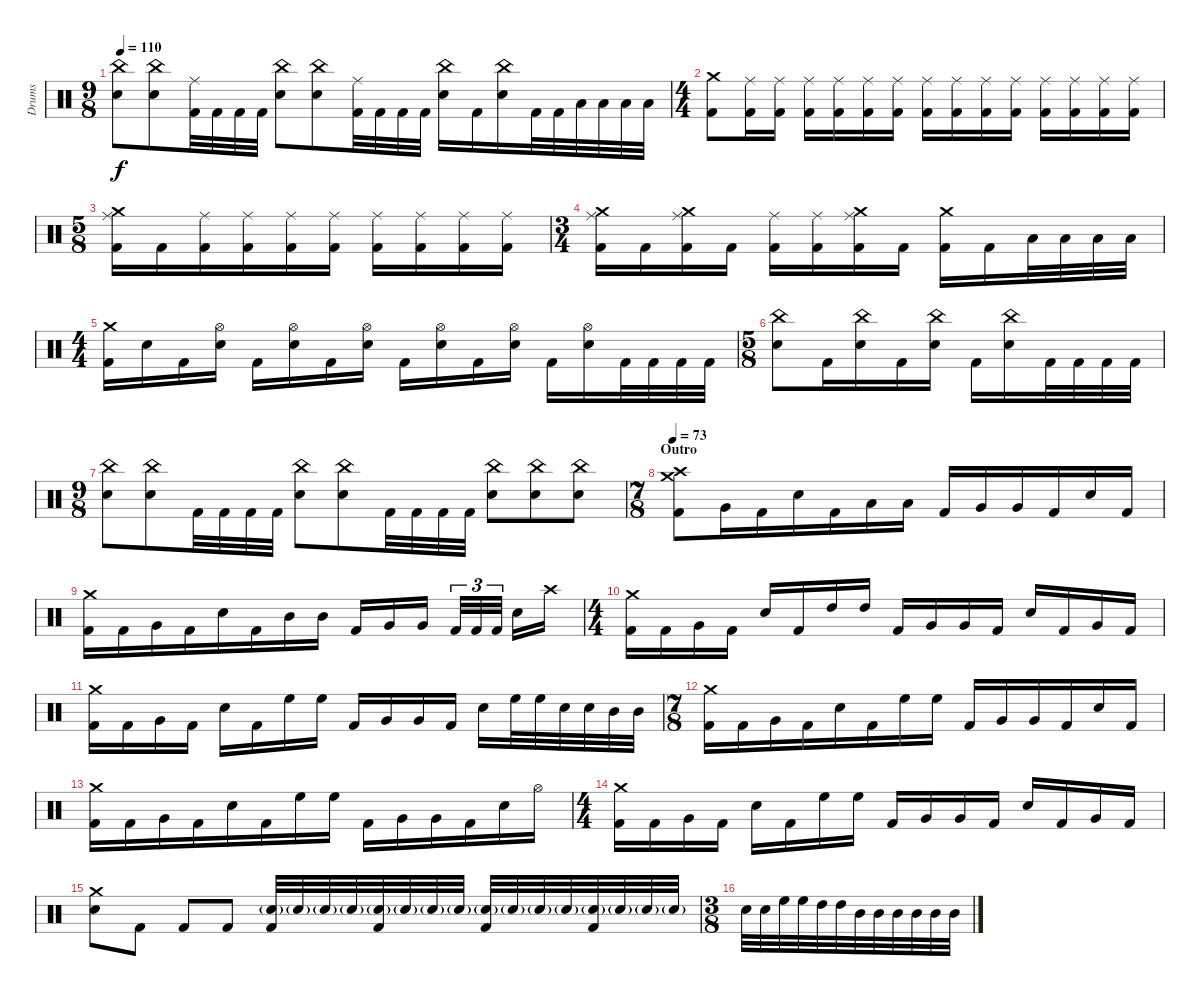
\track ("Drums" "Drums") {instrument percussion}
\staff {score}
\articulation defaults
\ts (9 8)
\tempo 110
\clef neutral
\ks c
("China (hit)" "Snare (hit) 2").8{dy f} ("China (hit)" "Snare (hit) 2").8 ("Ride (middle)" "Kick (hit) 2").32 "Kick (hit) 2".32 "Kick (hit) 2".32 "Kick (hit) 2".32 ("China (hit)" "Snare (hit) 2").8 ("China (hit)" "Snare (hit) 2").8 ("Ride (middle)" "Kick (hit) 2").32 "Kick (hit) 2".32 "Kick (hit) 2".32 "Kick (hit) 2".32 ("China (hit)" "Snare (hit) 2").16 "Kick (hit) 2".16 ("China (hit)" "Snare (hit) 2").16 "Kick (hit) 2".32 "Kick (hit) 2".32 "Low Tom (hit)".32 "Low Tom (hit)".32 "Low Tom (hit)".32 "Low Tom (hit)".32 |
\ts (4 4)
("Crash medium (hit)" "Kick (hit) 2").8 ("Ride (middle)" "Kick (hit) 2").16 ("Ride (middle)" "Kick (hit) 2").16 ("Ride (middle)" "Kick (hit) 2").16 ("Ride (middle)" "Kick (hit) 2").16 ("Ride (middle)" "Kick (hit) 2").16 ("Ride (middle)" "Kick (hit) 2").16 ("Ride (middle)" "Kick (hit) 2").16 ("Ride (middle)" "Kick (hit) 2").16 ("Ride (middle)" "Kick (hit) 2").16 ("Ride (middle)" "Kick (hit) 2").16 ("Ride (middle)" "Kick (hit) 2").16 ("Ride (middle)" "Kick (hit) 2").16 ("Ride (middle)" "Kick (hit) 2").16 ("Ride (middle)" "Kick (hit) 2").16 |
\ts (5 8)
("Crash medium (hit)" "Ride (middle)" "Kick (hit) 2").16 "Kick (hit) 2".16 ("Ride (middle)" "Kick (hit) 2").16 ("Ride (middle)" "Kick (hit) 2").16 ("Ride (middle)" "Kick (hit) 2").16 ("Ride (middle)" "Kick (hit) 2").16 ("Ride (middle)" "Kick (hit) 2").16 ("Ride (middle)" "Kick (hit) 2").16 ("Ride (middle)" "Kick (hit) 2").16 ("Ride (middle)" "Kick (hit) 2").16 |
\ts (3 4)
("Crash medium (hit)" "Ride (middle)" "Kick (hit) 2").16 "Kick (hit) 2".16 ("Crash medium (hit)" "Ride (middle)" "Kick (hit) 2").16 "Kick (hit) 2".16 ("Ride (middle)" "Kick (hit) 2").16 ("Ride (middle)" "Kick (hit) 2").16 ("Crash medium (hit)" "Ride (middle)" "Kick (hit) 2").16 "Kick (hit) 2".16 ("Crash medium (hit)" "Kick (hit) 2").16 "Kick (hit) 2".16 "Low Tom (hit)".32 "Low Tom (hit)".32 "Low Tom (hit)".32 "Low Tom (hit)".32 |
\ts (4 4)
("Crash medium (hit)" "Kick (hit) 2").16 "Snare (hit) 2".16 "Kick (hit) 2".16 ("Hi-Hat (open)" "Snare (hit) 2").16 "Kick (hit) 2".16 ("Hi-Hat (open)" "Snare (hit) 2").16 "Kick (hit) 2".16 ("Hi-Hat (open)" "Snare (hit) 2").16 "Kick (hit) 2".16 ("Hi-Hat (open)" "Snare (hit) 2").16 "Kick (hit) 2".16 ("Hi-Hat (open)" "Snare (hit) 2").16 "Kick (hit) 2".16 ("Hi-Hat (open)" "Snare (hit) 2").16 "Kick (hit) 2".32 "Kick (hit) 2".32 "Kick (hit) 2".32 "Kick (hit) 2".32 |
\ts (5 8)
("China (hit)" "Snare (hit) 2").8 "Kick (hit) 2".16 ("China (hit)" "Snare (hit) 2").16 "Kick (hit) 2".16 ("China (hit)" "Snare (hit) 2").16 "Kick (hit) 2".16 ("China (hit)" "Snare (hit) 2").16 "Kick (hit) 2".32 "Kick (hit) 2".32 "Kick (hit) 2".32 "Kick (hit) 2".32 |
\ts (9 8)
("China (hit)" "Snare (hit) 2").8 ("China (hit)" "Snare (hit) 2").8 "Kick (hit) 2".32 "Kick (hit) 2".32 "Kick (hit) 2".32 "Kick (hit) 2".32 ("China (hit)" "Snare (hit) 2").8 ("China (hit)" "Snare (hit) 2").8 "Kick (hit) 2".32 "Kick (hit) 2".32 "Kick (hit) 2".32 "Kick (hit) 2".32 ("China (hit)" "Snare (hit) 2").8 ("China (hit)" "Snare (hit) 2").8 ("China (hit)" "Snare (hit) 2").8 |
\ts (7 8)
\section ("" "Outro")
\tempo 73
("Crash medium (hit)" "Crash high (hit)" "Kick (hit) 2").8 "Very Low Tom (hit)".16 "Kick (hit) 2".16 "Snare (hit) 2".16 "Kick (hit) 2".16 "Low Tom (hit)".16 "Low Tom (hit)".16 "Kick (hit) 2".16 "Very Low Tom (hit)".16 "Very Low Tom (hit)".16 "Kick (hit) 2".16 "Snare (hit) 2".16 "Kick (hit) 2".16 |
("Crash medium (hit)" "Kick (hit) 2").16 "Kick (hit) 2".16 "Very Low Tom (hit)".16 "Kick (hit) 2".16 "Snare (hit) 2".16 "Kick (hit) 2".16 "Mid Tom (hit)".16 "Mid Tom (hit)".16 "Kick (hit) 2".16 "Very Low Tom (hit)".16 "Very Low Tom (hit)".16 "Kick (hit) 2".32{tu (3 2)} "Kick (hit) 2".32{tu (3 2)} "Kick (hit) 2".32{tu (3 2)} "Snare (hit) 2".16 "Crash high (hit)".16 |
\ts (4 4)
("Crash medium (hit)" "Kick (hit) 2").16 "Kick (hit) 2".16 "Very Low Tom (hit)".16 "Kick (hit) 2".16 "Snare (hit) 2".16 "Kick (hit) 2".16 "High Tom (hit)".16 "High Tom (hit)".16 "Kick (hit) 2".16 "Very Low Tom (hit)".16 "Very Low Tom (hit)".16 "Kick (hit) 2".16 "Snare (hit) 2".16 "Kick (hit) 2".16 "Very Low Tom (hit)".16 "Kick (hit) 2".16 |
("Crash medium (hit)" "Kick (hit) 2").16 "Kick (hit) 2".16 "Very Low Tom (hit)".16 "Kick (hit) 2".16 "Snare (hit) 2".16 "Kick (hit) 2".16 "High Floor Tom (hit)".16 "High Floor Tom (hit)".16 "Kick (hit) 2".16 "Very Low Tom (hit)".16 "Very Low Tom (hit)".16 "Kick (hit) 2".16 "Snare (hit) 2".16 "High Floor Tom (hit)".32 "High Floor Tom (hit)".32 "Snare (hit) 2".32 "Snare (hit) 2".32 "Mid Tom (hit)".32 "Mid Tom (hit)".32 |
\ts (7 8)
("Crash medium (hit)" "Kick (hit) 2").16 "Kick (hit) 2".16 "Very Low Tom (hit)".16 "Kick (hit) 2".16 "Snare (hit) 2".16 "Kick (hit) 2".16 "High Floor Tom (hit)".16 "High Floor Tom (hit)".16 "Kick (hit) 2".16 "Very Low Tom (hit)".16 "Very Low Tom (hit)".16 "Kick (hit) 2".16 "Snare (hit) 2".16 "Kick (hit) 2".16 |
("Crash medium (hit)" "Kick (hit) 2").16 "Kick (hit) 2".16 "Very Low Tom (hit)".16 "Kick (hit) 2".16 "Snare (hit) 2".16 "Kick (hit) 2".16 "High Floor Tom (hit)".16 "High Floor Tom (hit)".16 "Kick (hit) 2".16 "Very Low Tom (hit)".16 "Very Low Tom (hit)".16 "Kick (hit) 2".16 "Snare (hit) 2".16 "Hi-Hat (open)".16 |
\ts (4 4)
("Crash medium (hit)" "Kick (hit) 2").16 "Kick (hit) 2".16 "Very Low Tom (hit)".16 "Kick (hit) 2".16 "Snare (hit) 2".16 "Kick (hit) 2".16 "High Floor Tom (hit)".16 "High Floor Tom (hit)".16 "Kick (hit) 2".16 "Very Low Tom (hit)".16 "Very Low Tom (hit)".16 "Kick (hit) 2".16 "Snare (hit) 2".16 "Kick (hit) 2".16 "Very Low Tom (hit)".16 "Kick (hit) 2".16 |
("Crash medium (hit)" "Snare (hit) 2").8 "Kick (hit) 2".8 "Kick (hit) 2".8 "Kick (hit) 2".8 ("Snare (hit) 2"{g} "Kick (hit) 2").32 "Snare (hit) 2"{g}.32 "Snare (hit) 2"{g}.32 "Snare (hit) 2"{g}.32 ("Snare (hit) 2"{g} "Kick (hit) 2").32 "Snare (hit) 2"{g}.32 "Snare (hit) 2"{g}.32 "Snare (hit) 2"{g}.32 ("Snare (hit) 2"{g} "Kick (hit) 2").32 "Snare (hit) 2"{g}.32 "Snare (hit) 2"{g}.32 "Snare (hit) 2"{g}.32 ("Snare (hit) 2"{g} "Kick (hit) 2").32 "Snare (hit) 2"{g}.32 "Snare (hit) 2"{g}.32 "Snare (hit) 2"{g}.32 |
\ts (3 8)
"Snare (hit) 2".32 "Snare (hit) 2".32 "High Floor Tom (hit)".32 "High Floor Tom (hit)".32 "High Tom (hit)".32 "High Tom (hit)".32 "Mid Tom (hit)".32 "Mid Tom (hit)".32 "Mid Tom (hit)".32 "Mid Tom (hit)".32 "Mid Tom (hit)".32 "Mid Tom (hit)".32
